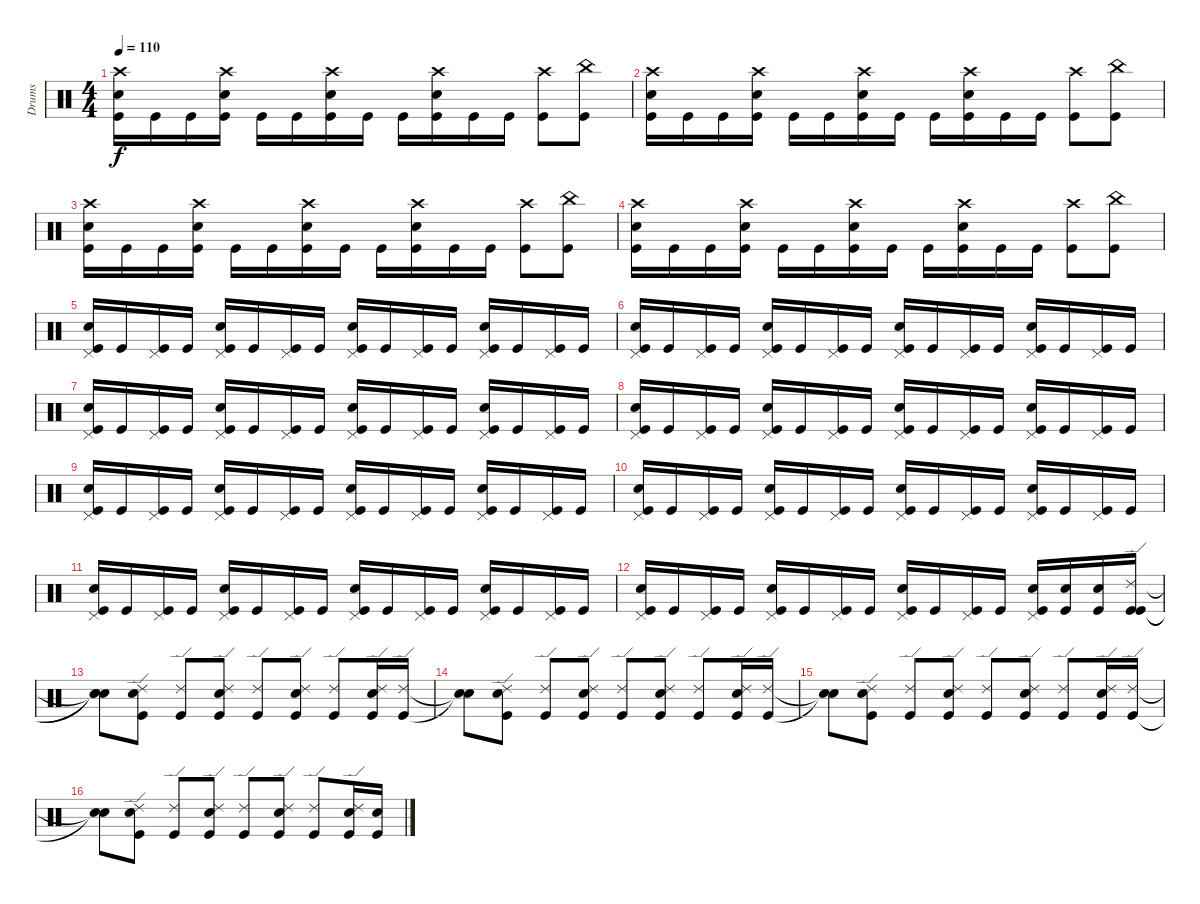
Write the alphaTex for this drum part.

\track ("Drums" "Drums") {instrument percussion}
\staff {score}
\articulation defaults
\ts (4 4)
\tempo 110
\clef neutral
\ks c
("Crash high (hit)" "Electric Snare (hit)" "Kick (hit)").16{dy f} "Kick (hit)".16 "Kick (hit)".16 ("Crash high (hit)" "Electric Snare (hit)" "Kick (hit)").16 "Kick (hit)".16 "Kick (hit)".16 ("Crash high (hit)" "Electric Snare (hit)" "Kick (hit)").16 "Kick (hit)".16 "Kick (hit)".16 ("Crash high (hit)" "Electric Snare (hit)" "Kick (hit)").16 "Kick (hit)".16 "Kick (hit)".16 ("Crash high (hit)" "Kick (hit)").8 ("China (hit)" "Kick (hit)").8 |
("Crash high (hit)" "Electric Snare (hit)" "Kick (hit)").16 "Kick (hit)".16 "Kick (hit)".16 ("Crash high (hit)" "Electric Snare (hit)" "Kick (hit)").16 "Kick (hit)".16 "Kick (hit)".16 ("Crash high (hit)" "Electric Snare (hit)" "Kick (hit)").16 "Kick (hit)".16 "Kick (hit)".16 ("Crash high (hit)" "Electric Snare (hit)" "Kick (hit)").16 "Kick (hit)".16 "Kick (hit)".16 ("Crash high (hit)" "Kick (hit)").8 ("China (hit)" "Kick (hit)").8 |
("Crash high (hit)" "Electric Snare (hit)" "Kick (hit)").16 "Kick (hit)".16 "Kick (hit)".16 ("Crash high (hit)" "Electric Snare (hit)" "Kick (hit)").16 "Kick (hit)".16 "Kick (hit)".16 ("Crash high (hit)" "Electric Snare (hit)" "Kick (hit)").16 "Kick (hit)".16 "Kick (hit)".16 ("Crash high (hit)" "Electric Snare (hit)" "Kick (hit)").16 "Kick (hit)".16 "Kick (hit)".16 ("Crash high (hit)" "Kick (hit)").8 ("China (hit)" "Kick (hit)").8 |
("Crash high (hit)" "Electric Snare (hit)" "Kick (hit)").16 "Kick (hit)".16 "Kick (hit)".16 ("Crash high (hit)" "Electric Snare (hit)" "Kick (hit)").16 "Kick (hit)".16 "Kick (hit)".16 ("Crash high (hit)" "Electric Snare (hit)" "Kick (hit)").16 "Kick (hit)".16 "Kick (hit)".16 ("Crash high (hit)" "Electric Snare (hit)" "Kick (hit)").16 "Kick (hit)".16 "Kick (hit)".16 ("Crash high (hit)" "Kick (hit)").8 ("China (hit)" "Kick (hit)").8 |
("Pedal Hi-Hat (hit)" "Electric Snare (hit)" "Kick (hit)").16 "Kick (hit)".16 ("Pedal Hi-Hat (hit)" "Kick (hit)").16 "Kick (hit)".16 ("Pedal Hi-Hat (hit)" "Electric Snare (hit)" "Kick (hit)").16 "Kick (hit)".16 ("Pedal Hi-Hat (hit)" "Kick (hit)").16 "Kick (hit)".16 ("Pedal Hi-Hat (hit)" "Electric Snare (hit)" "Kick (hit)").16 "Kick (hit)".16 ("Pedal Hi-Hat (hit)" "Kick (hit)").16 "Kick (hit)".16 ("Pedal Hi-Hat (hit)" "Electric Snare (hit)" "Kick (hit)").16 "Kick (hit)".16 ("Pedal Hi-Hat (hit)" "Kick (hit)").16 "Kick (hit)".16 |
("Pedal Hi-Hat (hit)" "Electric Snare (hit)" "Kick (hit)").16 "Kick (hit)".16 ("Pedal Hi-Hat (hit)" "Kick (hit)").16 "Kick (hit)".16 ("Pedal Hi-Hat (hit)" "Electric Snare (hit)" "Kick (hit)").16 "Kick (hit)".16 ("Pedal Hi-Hat (hit)" "Kick (hit)").16 "Kick (hit)".16 ("Pedal Hi-Hat (hit)" "Electric Snare (hit)" "Kick (hit)").16 "Kick (hit)".16 ("Pedal Hi-Hat (hit)" "Kick (hit)").16 "Kick (hit)".16 ("Pedal Hi-Hat (hit)" "Electric Snare (hit)" "Kick (hit)").16 "Kick (hit)".16 ("Pedal Hi-Hat (hit)" "Kick (hit)").16 "Kick (hit)".16 |
("Pedal Hi-Hat (hit)" "Electric Snare (hit)" "Kick (hit)").16 "Kick (hit)".16 ("Pedal Hi-Hat (hit)" "Kick (hit)").16 "Kick (hit)".16 ("Pedal Hi-Hat (hit)" "Electric Snare (hit)" "Kick (hit)").16 "Kick (hit)".16 ("Pedal Hi-Hat (hit)" "Kick (hit)").16 "Kick (hit)".16 ("Pedal Hi-Hat (hit)" "Electric Snare (hit)" "Kick (hit)").16 "Kick (hit)".16 ("Pedal Hi-Hat (hit)" "Kick (hit)").16 "Kick (hit)".16 ("Pedal Hi-Hat (hit)" "Electric Snare (hit)" "Kick (hit)").16 "Kick (hit)".16 ("Pedal Hi-Hat (hit)" "Kick (hit)").16 "Kick (hit)".16 |
("Pedal Hi-Hat (hit)" "Electric Snare (hit)" "Kick (hit)").16 "Kick (hit)".16 ("Pedal Hi-Hat (hit)" "Kick (hit)").16 "Kick (hit)".16 ("Pedal Hi-Hat (hit)" "Electric Snare (hit)" "Kick (hit)").16 "Kick (hit)".16 ("Pedal Hi-Hat (hit)" "Kick (hit)").16 "Kick (hit)".16 ("Pedal Hi-Hat (hit)" "Electric Snare (hit)" "Kick (hit)").16 "Kick (hit)".16 ("Pedal Hi-Hat (hit)" "Kick (hit)").16 "Kick (hit)".16 ("Pedal Hi-Hat (hit)" "Electric Snare (hit)" "Kick (hit)").16 "Kick (hit)".16 ("Pedal Hi-Hat (hit)" "Kick (hit)").16 "Kick (hit)".16 |
("Pedal Hi-Hat (hit)" "Electric Snare (hit)" "Kick (hit)").16 "Kick (hit)".16 ("Pedal Hi-Hat (hit)" "Kick (hit)").16 "Kick (hit)".16 ("Pedal Hi-Hat (hit)" "Electric Snare (hit)" "Kick (hit)").16 "Kick (hit)".16 ("Pedal Hi-Hat (hit)" "Kick (hit)").16 "Kick (hit)".16 ("Pedal Hi-Hat (hit)" "Electric Snare (hit)" "Kick (hit)").16 "Kick (hit)".16 ("Pedal Hi-Hat (hit)" "Kick (hit)").16 "Kick (hit)".16 ("Pedal Hi-Hat (hit)" "Electric Snare (hit)" "Kick (hit)").16 "Kick (hit)".16 ("Pedal Hi-Hat (hit)" "Kick (hit)").16 "Kick (hit)".16 |
("Pedal Hi-Hat (hit)" "Electric Snare (hit)" "Kick (hit)").16 "Kick (hit)".16 ("Pedal Hi-Hat (hit)" "Kick (hit)").16 "Kick (hit)".16 ("Pedal Hi-Hat (hit)" "Electric Snare (hit)" "Kick (hit)").16 "Kick (hit)".16 ("Pedal Hi-Hat (hit)" "Kick (hit)").16 "Kick (hit)".16 ("Pedal Hi-Hat (hit)" "Electric Snare (hit)" "Kick (hit)").16 "Kick (hit)".16 ("Pedal Hi-Hat (hit)" "Kick (hit)").16 "Kick (hit)".16 ("Pedal Hi-Hat (hit)" "Electric Snare (hit)" "Kick (hit)").16 "Kick (hit)".16 ("Pedal Hi-Hat (hit)" "Kick (hit)").16 "Kick (hit)".16 |
("Pedal Hi-Hat (hit)" "Electric Snare (hit)" "Kick (hit)").16 "Kick (hit)".16 ("Pedal Hi-Hat (hit)" "Kick (hit)").16 "Kick (hit)".16 ("Pedal Hi-Hat (hit)" "Electric Snare (hit)" "Kick (hit)").16 "Kick (hit)".16 ("Pedal Hi-Hat (hit)" "Kick (hit)").16 "Kick (hit)".16 ("Pedal Hi-Hat (hit)" "Electric Snare (hit)" "Kick (hit)").16 "Kick (hit)".16 ("Pedal Hi-Hat (hit)" "Kick (hit)").16 "Kick (hit)".16 ("Pedal Hi-Hat (hit)" "Electric Snare (hit)" "Kick (hit)").16 "Kick (hit)".16 ("Pedal Hi-Hat (hit)" "Kick (hit)").16 "Kick (hit)".16 |
("Pedal Hi-Hat (hit)" "Electric Snare (hit)" "Kick (hit)").16 "Kick (hit)".16 ("Pedal Hi-Hat (hit)" "Kick (hit)").16 "Kick (hit)".16 ("Pedal Hi-Hat (hit)" "Electric Snare (hit)" "Kick (hit)").16 "Kick (hit)".16 ("Pedal Hi-Hat (hit)" "Kick (hit)").16 "Kick (hit)".16 ("Pedal Hi-Hat (hit)" "Electric Snare (hit)" "Kick (hit)").16 "Kick (hit)".16 ("Pedal Hi-Hat (hit)" "Kick (hit)").16 "Kick (hit)".16 ("Pedal Hi-Hat (hit)" "Electric Snare (hit)" "Kick (hit)").16 ("Electric Snare (hit)" "Kick (hit)").16 ("Electric Snare (hit)" "Kick (hit)").16 ("Ride (edge) 2" "Kick (hit)" "Kick (hit)").16 |
("Snare (hit)"{t} "Snare (hit)"{t} "Snare (hit)"{t}).8 ("Ride (edge) 2" "Electric Snare (hit)" "Kick (hit)").8 ("Ride (edge) 2" "Kick (hit)").8 ("Ride (edge) 2" "Electric Snare (hit)" "Kick (hit)").8 ("Ride (edge) 2" "Kick (hit)").8 ("Ride (edge) 2" "Electric Snare (hit)" "Kick (hit)").8 ("Ride (edge) 2" "Kick (hit)").8 ("Ride (edge) 2" "Electric Snare (hit)" "Kick (hit)").16 ("Ride (edge) 2" "Kick (hit)").16 |
("Snare (hit)"{t} "Snare (hit)"{t}).8 ("Ride (edge) 2" "Electric Snare (hit)" "Kick (hit)").8 ("Ride (edge) 2" "Kick (hit)").8 ("Ride (edge) 2" "Electric Snare (hit)" "Kick (hit)").8 ("Ride (edge) 2" "Kick (hit)").8 ("Ride (edge) 2" "Electric Snare (hit)" "Kick (hit)").8 ("Ride (edge) 2" "Kick (hit)").8 ("Ride (edge) 2" "Electric Snare (hit)" "Kick (hit)").16 ("Ride (edge) 2" "Kick (hit)").16 |
("Snare (hit)"{t} "Snare (hit)"{t}).8 ("Ride (edge) 2" "Electric Snare (hit)" "Kick (hit)").8 ("Ride (edge) 2" "Kick (hit)").8 ("Ride (edge) 2" "Electric Snare (hit)" "Kick (hit)").8 ("Ride (edge) 2" "Kick (hit)").8 ("Ride (edge) 2" "Electric Snare (hit)" "Kick (hit)").8 ("Ride (edge) 2" "Kick (hit)").8 ("Ride (edge) 2" "Electric Snare (hit)" "Kick (hit)").16 ("Ride (edge) 2" "Kick (hit)").16 |
("Snare (hit)"{t} "Snare (hit)"{t}).8 ("Ride (edge) 2" "Electric Snare (hit)" "Kick (hit)").8 ("Ride (edge) 2" "Kick (hit)").8 ("Ride (edge) 2" "Electric Snare (hit)" "Kick (hit)").8 ("Ride (edge) 2" "Kick (hit)").8 ("Ride (edge) 2" "Electric Snare (hit)" "Kick (hit)").8 ("Ride (edge) 2" "Kick (hit)").8 ("Ride (edge) 2" "Electric Snare (hit)" "Kick (hit)").16 ("Electric Snare (hit)" "Kick (hit)").16
